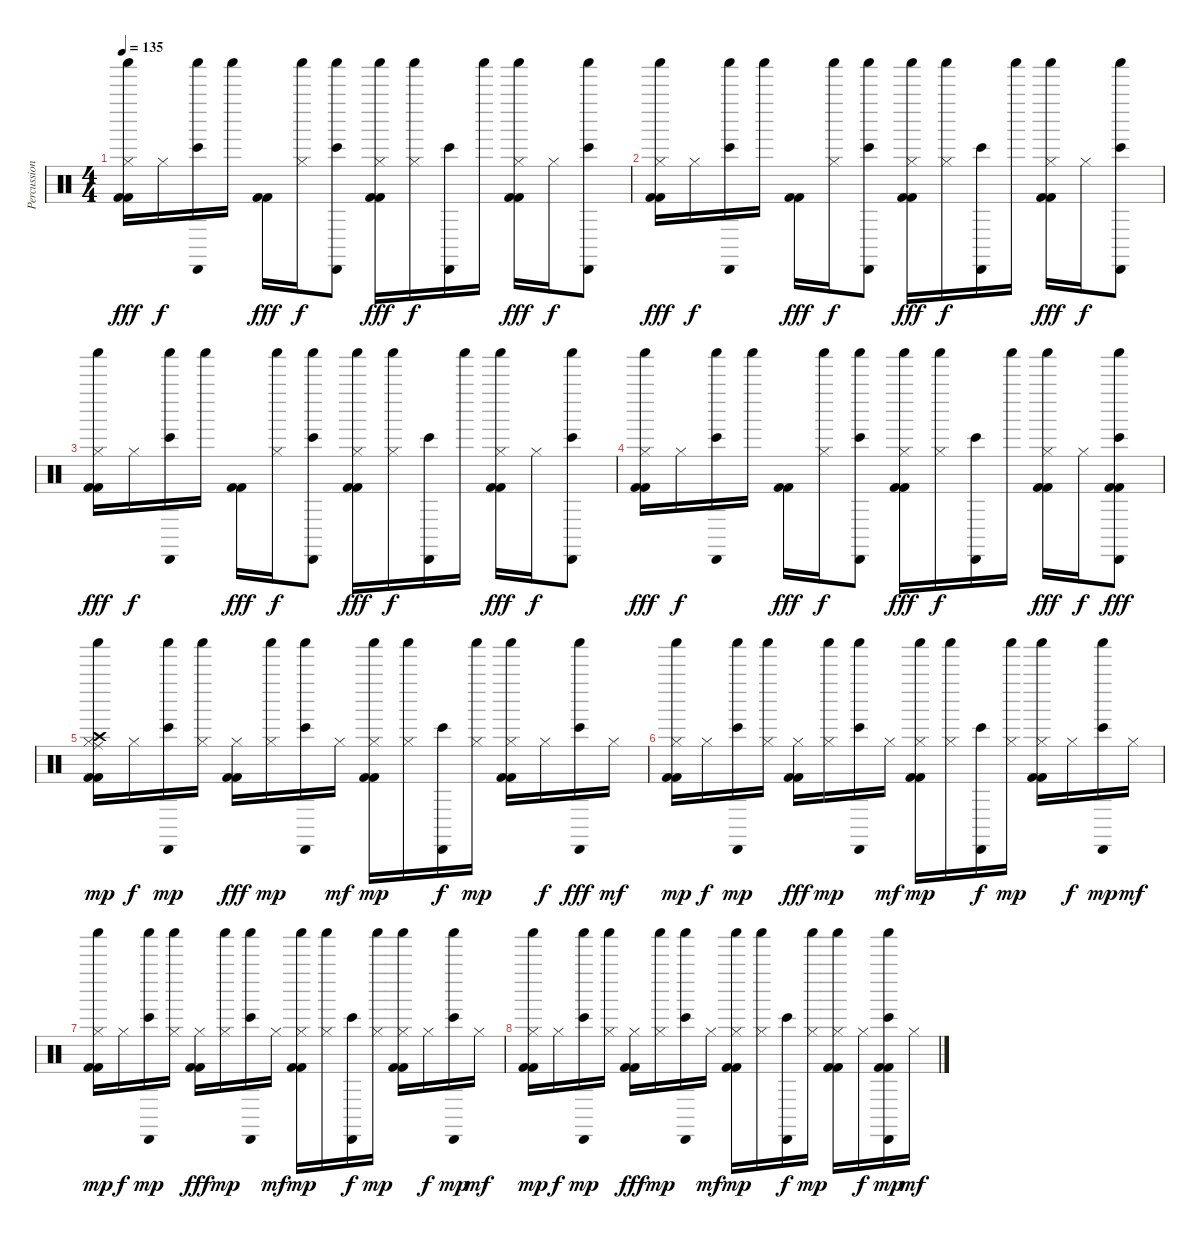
\track ("Percussion" "Percussion") {instrument percussion}
\staff {score}
\articulation defaults
\ts (4 4)
\tempo 135
\clef neutral
\ks c
("Hi-Hat (closed)" "Kick (hit) 2" "Kick (hit) 2" "Shaker (hit)").16{dy fff} "Hi-Hat (closed)".16{dy f} ("Cabasa (hit)" "Bongo High (hit)" "Shaker (hit)").16 "Shaker (hit)".16 ("Kick (hit) 2" "Kick (hit) 2").16{dy fff} ("Hi-Hat (closed)" "Shaker (hit)").16{dy f} ("Cabasa (hit)" "Bongo High (hit)" "Shaker (hit)").8 ("Hi-Hat (closed)" "Kick (hit) 2" "Kick (hit) 2" "Shaker (hit)").16{dy fff} ("Hi-Hat (closed)" "Shaker (hit)").16{dy f} ("Cabasa (hit)" "Bongo High (hit)").16 "Shaker (hit)".16 ("Hi-Hat (closed)" "Kick (hit) 2" "Kick (hit) 2" "Shaker (hit)").16{dy fff} "Hi-Hat (closed)".16{dy f} ("Cabasa (hit)" "Bongo High (hit)" "Shaker (hit)").8 |
("Hi-Hat (closed)" "Kick (hit) 2" "Kick (hit) 2" "Shaker (hit)").16{dy fff} "Hi-Hat (closed)".16{dy f} ("Cabasa (hit)" "Bongo High (hit)" "Shaker (hit)").16 "Shaker (hit)".16 ("Kick (hit) 2" "Kick (hit) 2").16{dy fff} ("Hi-Hat (closed)" "Shaker (hit)").16{dy f} ("Cabasa (hit)" "Bongo High (hit)" "Shaker (hit)").8 ("Hi-Hat (closed)" "Kick (hit) 2" "Kick (hit) 2" "Shaker (hit)").16{dy fff} ("Hi-Hat (closed)" "Shaker (hit)").16{dy f} ("Cabasa (hit)" "Bongo High (hit)").16 "Shaker (hit)".16 ("Hi-Hat (closed)" "Kick (hit) 2" "Kick (hit) 2" "Shaker (hit)").16{dy fff} "Hi-Hat (closed)".16{dy f} ("Cabasa (hit)" "Bongo High (hit)" "Shaker (hit)").8 |
("Hi-Hat (closed)" "Kick (hit) 2" "Kick (hit) 2" "Shaker (hit)").16{dy fff} "Hi-Hat (closed)".16{dy f} ("Cabasa (hit)" "Bongo High (hit)" "Shaker (hit)").16 "Shaker (hit)".16 ("Kick (hit) 2" "Kick (hit) 2").16{dy fff} ("Hi-Hat (closed)" "Shaker (hit)").16{dy f} ("Cabasa (hit)" "Bongo High (hit)" "Shaker (hit)").8 ("Hi-Hat (closed)" "Kick (hit) 2" "Kick (hit) 2" "Shaker (hit)").16{dy fff} ("Hi-Hat (closed)" "Shaker (hit)").16{dy f} ("Cabasa (hit)" "Bongo High (hit)").16 "Shaker (hit)".16 ("Hi-Hat (closed)" "Kick (hit) 2" "Kick (hit) 2" "Shaker (hit)").16{dy fff} "Hi-Hat (closed)".16{dy f} ("Cabasa (hit)" "Bongo High (hit)" "Shaker (hit)").8 |
("Hi-Hat (closed)" "Kick (hit) 2" "Kick (hit) 2" "Shaker (hit)").16{dy fff} "Hi-Hat (closed)".16{dy f} ("Cabasa (hit)" "Bongo High (hit)" "Shaker (hit)").16 "Shaker (hit)".16 ("Kick (hit) 2" "Kick (hit) 2").16{dy fff} ("Hi-Hat (closed)" "Shaker (hit)").16{dy f} ("Cabasa (hit)" "Bongo High (hit)" "Shaker (hit)").8 ("Hi-Hat (closed)" "Kick (hit) 2" "Kick (hit) 2" "Shaker (hit)").16{dy fff} ("Hi-Hat (closed)" "Shaker (hit)").16{dy f} ("Cabasa (hit)" "Bongo High (hit)").16 "Shaker (hit)".16 ("Hi-Hat (closed)" "Kick (hit) 2" "Kick (hit) 2" "Shaker (hit)").16{dy fff} "Hi-Hat (closed)".16{dy f} ("Cabasa (hit)" "Bongo High (hit)" "Kick (hit) 2" "Kick (hit) 2" "Shaker (hit)").8{dy fff} |
("Ride (middle)" "Hi-Hat (closed)" "Crash high (hit)" "Kick (hit) 2" "Kick (hit) 2" "Shaker (hit)").16{dy mp} "Hi-Hat (closed)".16{dy f} ("Cabasa (hit)" "Bongo High (hit)" "Shaker (hit)").16{dy mp} ("Hi-Hat (closed)" "Shaker (hit)").16 ("Hi-Hat (closed)" "Kick (hit) 2" "Kick (hit) 2").16{dy fff} ("Hi-Hat (closed)" "Shaker (hit)").16{dy mp} ("Cabasa (hit)" "Bongo High (hit)" "Shaker (hit)").16 "Hi-Hat (closed)".16{dy mf} ("Hi-Hat (closed)" "Kick (hit) 2" "Kick (hit) 2" "Shaker (hit)").16{dy mp} ("Hi-Hat (closed)" "Shaker (hit)").16 ("Cabasa (hit)" "Bongo High (hit)").16{dy f} ("Hi-Hat (closed)" "Shaker (hit)").16{dy mp} ("Hi-Hat (closed)" "Kick (hit) 2" "Kick (hit) 2" "Shaker (hit)").16 "Hi-Hat (closed)".16{dy f} ("Cabasa (hit)" "Bongo High (hit)" "Shaker (hit)").16{dy fff} "Hi-Hat (closed)".16{dy mf} |
("Hi-Hat (closed)" "Kick (hit) 2" "Kick (hit) 2" "Shaker (hit)").16{dy mp} "Hi-Hat (closed)".16{dy f} ("Cabasa (hit)" "Bongo High (hit)" "Shaker (hit)").16{dy mp} ("Hi-Hat (closed)" "Shaker (hit)").16 ("Hi-Hat (closed)" "Kick (hit) 2" "Kick (hit) 2").16{dy fff} ("Hi-Hat (closed)" "Shaker (hit)").16{dy mp} ("Cabasa (hit)" "Bongo High (hit)" "Shaker (hit)").16 "Hi-Hat (closed)".16{dy mf} ("Hi-Hat (closed)" "Kick (hit) 2" "Kick (hit) 2" "Shaker (hit)").16{dy mp} ("Hi-Hat (closed)" "Shaker (hit)").16 ("Cabasa (hit)" "Bongo High (hit)").16{dy f} ("Hi-Hat (closed)" "Shaker (hit)").16{dy mp} ("Hi-Hat (closed)" "Kick (hit) 2" "Kick (hit) 2" "Shaker (hit)").16 "Hi-Hat (closed)".16{dy f} ("Cabasa (hit)" "Bongo High (hit)" "Shaker (hit)").16{dy mp} "Hi-Hat (closed)".16{dy mf} |
("Hi-Hat (closed)" "Kick (hit) 2" "Kick (hit) 2" "Shaker (hit)").16{dy mp} "Hi-Hat (closed)".16{dy f} ("Cabasa (hit)" "Bongo High (hit)" "Shaker (hit)").16{dy mp} ("Hi-Hat (closed)" "Shaker (hit)").16 ("Hi-Hat (closed)" "Kick (hit) 2" "Kick (hit) 2").16{dy fff} ("Hi-Hat (closed)" "Shaker (hit)").16{dy mp} ("Cabasa (hit)" "Bongo High (hit)" "Shaker (hit)").16 "Hi-Hat (closed)".16{dy mf} ("Hi-Hat (closed)" "Kick (hit) 2" "Kick (hit) 2" "Shaker (hit)").16{dy mp} ("Hi-Hat (closed)" "Shaker (hit)").16 ("Cabasa (hit)" "Bongo High (hit)").16{dy f} ("Hi-Hat (closed)" "Shaker (hit)").16{dy mp} ("Hi-Hat (closed)" "Kick (hit) 2" "Kick (hit) 2" "Shaker (hit)").16 "Hi-Hat (closed)".16{dy f} ("Cabasa (hit)" "Bongo High (hit)" "Shaker (hit)").16{dy mp} "Hi-Hat (closed)".16{dy mf} |
("Hi-Hat (closed)" "Kick (hit) 2" "Kick (hit) 2" "Shaker (hit)").16{dy mp} "Hi-Hat (closed)".16{dy f} ("Cabasa (hit)" "Bongo High (hit)" "Shaker (hit)").16{dy mp} ("Hi-Hat (closed)" "Shaker (hit)").16 ("Hi-Hat (closed)" "Kick (hit) 2" "Kick (hit) 2").16{dy fff} ("Hi-Hat (closed)" "Shaker (hit)").16{dy mp} ("Cabasa (hit)" "Bongo High (hit)" "Shaker (hit)").16 "Hi-Hat (closed)".16{dy mf} ("Hi-Hat (closed)" "Kick (hit) 2" "Kick (hit) 2" "Shaker (hit)").16{dy mp} ("Hi-Hat (closed)" "Shaker (hit)").16 ("Cabasa (hit)" "Bongo High (hit)").16{dy f} ("Hi-Hat (closed)" "Shaker (hit)").16{dy mp} ("Hi-Hat (closed)" "Kick (hit) 2" "Kick (hit) 2" "Shaker (hit)").16 "Hi-Hat (closed)".16{dy f} ("Cabasa (hit)" "Bongo High (hit)" "Kick (hit) 2" "Kick (hit) 2" "Shaker (hit)").16{dy mp} "Hi-Hat (closed)".16{dy mf}
